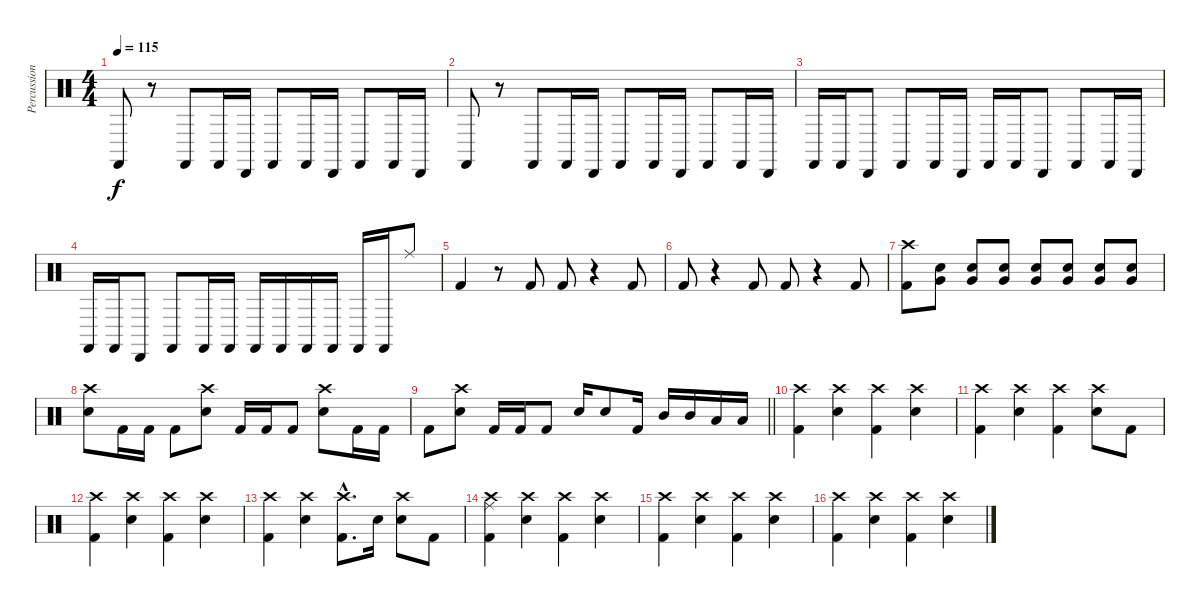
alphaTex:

\track ("Percussion" "Percussion") {instrument percussion}
\staff {score}
\articulation defaults
\ts (4 4)
\tempo 115
\clef neutral
\ks c "Castanets (hit)".8{dy f}
r.8 "Castanets (hit)".8 "Castanets (hit)".16 "Cabasa (hit)".16 "Castanets (hit)".8 "Castanets (hit)".16 "Cabasa (hit)".16 "Castanets (hit)".8 "Castanets (hit)".16 "Cabasa (hit)".16 |
"Castanets (hit)".8 r.8 "Castanets (hit)".8 "Castanets (hit)".16 "Cabasa (hit)".16 "Castanets (hit)".8 "Castanets (hit)".16 "Cabasa (hit)".16 "Castanets (hit)".8 "Castanets (hit)".16 "Cabasa (hit)".16 |
"Castanets (hit)".16 "Castanets (hit)".16 "Cabasa (hit)".8 "Castanets (hit)".8 "Castanets (hit)".16 "Cabasa (hit)".16 "Castanets (hit)".16 "Castanets (hit)".16 "Cabasa (hit)".8 "Castanets (hit)".8 "Castanets (hit)".16 "Cabasa (hit)".16 |
"Castanets (hit)".16 "Castanets (hit)".16 "Cabasa (hit)".8 "Castanets (hit)".8 "Castanets (hit)".16 "Castanets (hit)".16 "Castanets (hit)".16 "Castanets (hit)".16 "Castanets (hit)".16 "Castanets (hit)".16 "Castanets (hit)".16 "Castanets (hit)".16 "Ride (middle)".8 |
"Kick (hit) 2".4 r.8 "Kick (hit) 2".8 "Kick (hit) 2".8 r.4 "Kick (hit) 2".8 |
"Kick (hit) 2".8 r.4 "Kick (hit) 2".8 "Kick (hit) 2".8 r.4 "Kick (hit) 2".8 |
("Crash high (hit)" "Kick (hit) 2").8 ("Very Low Tom (hit)" "Snare (hit) 2").8 ("Very Low Tom (hit)" "Snare (hit) 2").8 ("Very Low Tom (hit)" "Snare (hit) 2").8 ("Very Low Tom (hit)" "Snare (hit) 2").8 ("Very Low Tom (hit)" "Snare (hit) 2").8 ("Very Low Tom (hit)" "Snare (hit) 2").8 ("Very Low Tom (hit)" "Snare (hit) 2").8 |
("Crash high (hit)" "Snare (hit) 2").8 "Kick (hit) 2".16 "Kick (hit) 2".16 "Kick (hit) 2".8 ("Crash high (hit)" "Snare (hit) 2").8 "Kick (hit) 2".16 "Kick (hit) 2".16 "Kick (hit) 2".8 ("Crash high (hit)" "Snare (hit) 2").8 "Kick (hit) 2".16 "Kick (hit) 2".16 |
\barLineRight lightlight "Kick (hit) 2".8
("Crash high (hit)" "Snare (hit) 2").8 "Kick (hit) 2".16 "Kick (hit) 2".16 "Kick (hit) 2".8 "Snare (hit) 2".16 "Snare (hit) 2".8 "Kick (hit) 2".16 "Mid Tom (hit)".16 "Mid Tom (hit)".16 "Low Tom (hit)".16 "Low Tom (hit)".16 |
("Crash high (hit)" "Kick (hit) 2").4 ("Crash high (hit)" "Snare (hit) 2").4 ("Crash high (hit)" "Kick (hit) 2").4 ("Crash high (hit)" "Snare (hit) 2").4 |
("Crash high (hit)" "Kick (hit) 2").4 ("Crash high (hit)" "Snare (hit) 2").4 ("Crash high (hit)" "Kick (hit) 2").4 ("Crash high (hit)" "Snare (hit) 2").8 "Kick (hit) 2".8 |
("Crash high (hit)" "Kick (hit) 2").4 ("Crash high (hit)" "Snare (hit) 2").4 ("Crash high (hit)" "Kick (hit) 2").4 ("Crash high (hit)" "Snare (hit) 2").4 |
("Crash high (hit)" "Kick (hit) 2").4 ("Crash high (hit)" "Snare (hit) 2").4 ("Crash high (hit)"{hac} "Kick (hit) 2"{hac}).8{d} "Snare (hit) 2".16 ("Crash high (hit)" "Snare (hit) 2").8 "Kick (hit) 2".8 |
("Crash high (hit)" "Ride (middle)" "Kick (hit) 2").4 ("Crash high (hit)" "Snare (hit) 2").4 ("Crash high (hit)" "Kick (hit) 2").4 ("Crash high (hit)" "Snare (hit) 2").4 |
("Crash high (hit)" "Kick (hit) 2").4 ("Crash high (hit)" "Snare (hit) 2").4 ("Crash high (hit)" "Kick (hit) 2").4 ("Crash high (hit)" "Snare (hit) 2").4 |
("Crash high (hit)" "Kick (hit) 2").4 ("Crash high (hit)" "Snare (hit) 2").4 ("Crash high (hit)" "Kick (hit) 2").4 ("Crash high (hit)" "Snare (hit) 2").4
